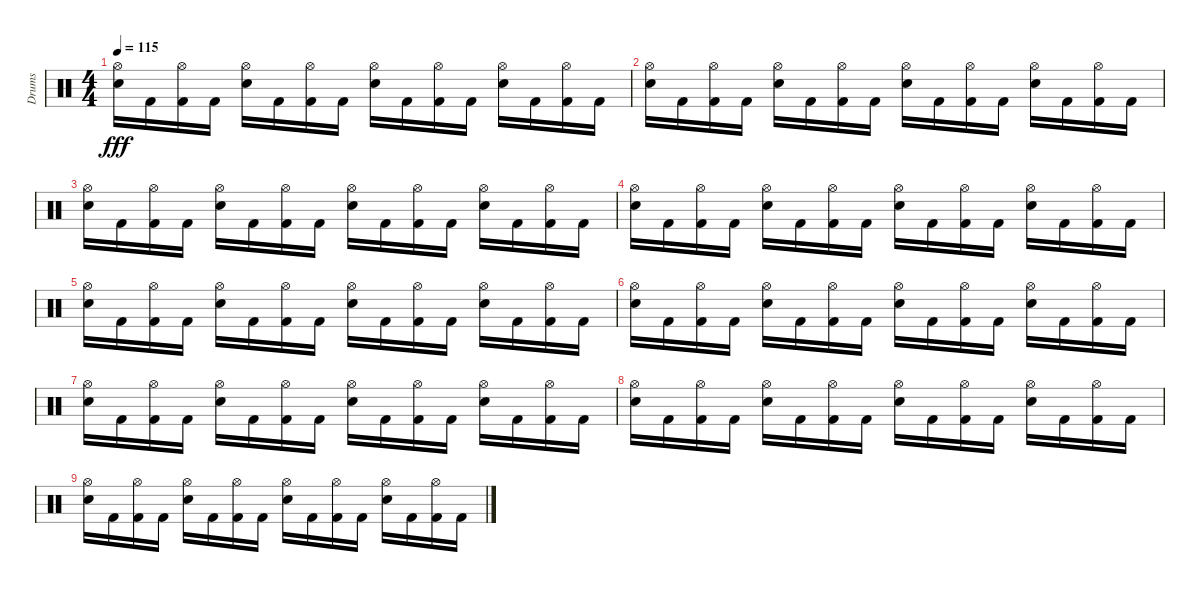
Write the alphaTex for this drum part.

\track ("Drums" "Drums") {instrument percussion}
\staff {score}
\articulation defaults
\ts (4 4)
\tempo 115
\clef neutral
\ks c
("Hi-Hat (open)" "Electric Snare (hit)").16{dy fff volume 8} "Kick (hit) 2".16 ("Hi-Hat (open)" "Kick (hit) 2").16{volume 8} "Kick (hit) 2".16 ("Hi-Hat (open)" "Electric Snare (hit)").16{volume 8} "Kick (hit) 2".16 ("Hi-Hat (open)" "Kick (hit) 2").16{volume 7} "Kick (hit) 2".16 ("Hi-Hat (open)" "Electric Snare (hit)").16 "Kick (hit) 2".16{volume 7} ("Hi-Hat (open)" "Kick (hit) 2").16 "Kick (hit) 2".16{volume 7} ("Hi-Hat (open)" "Electric Snare (hit)").16 "Kick (hit) 2".16{volume 7} ("Hi-Hat (open)" "Kick (hit) 2").16 "Kick (hit) 2".16{volume 7} |
("Hi-Hat (open)" "Electric Snare (hit)").16 "Kick (hit) 2".16{volume 7} ("Hi-Hat (open)" "Kick (hit) 2").16 "Kick (hit) 2".16 ("Hi-Hat (open)" "Electric Snare (hit)").16{volume 7} "Kick (hit) 2".16 ("Hi-Hat (open)" "Kick (hit) 2").16{volume 6} "Kick (hit) 2".16 ("Hi-Hat (open)" "Electric Snare (hit)").16{volume 6} "Kick (hit) 2".16 ("Hi-Hat (open)" "Kick (hit) 2").16{volume 6} "Kick (hit) 2".16 ("Hi-Hat (open)" "Electric Snare (hit)").16{volume 6} "Kick (hit) 2".16 ("Hi-Hat (open)" "Kick (hit) 2").16 "Kick (hit) 2".16{volume 6} |
("Hi-Hat (open)" "Electric Snare (hit)").16 "Kick (hit) 2".16{volume 6} ("Hi-Hat (open)" "Kick (hit) 2").16 "Kick (hit) 2".16{volume 6} ("Hi-Hat (open)" "Electric Snare (hit)").16 "Kick (hit) 2".16{volume 6} ("Hi-Hat (open)" "Kick (hit) 2").16 "Kick (hit) 2".16{volume 6} ("Hi-Hat (open)" "Electric Snare (hit)").16 "Kick (hit) 2".16 ("Hi-Hat (open)" "Kick (hit) 2").16{volume 5} "Kick (hit) 2".16 ("Hi-Hat (open)" "Electric Snare (hit)").16{volume 5} "Kick (hit) 2".16 ("Hi-Hat (open)" "Kick (hit) 2").16{volume 5} "Kick (hit) 2".16 |
("Hi-Hat (open)" "Electric Snare (hit)").16{volume 5} "Kick (hit) 2".16 ("Hi-Hat (open)" "Kick (hit) 2").16{volume 5} "Kick (hit) 2".16 ("Hi-Hat (open)" "Electric Snare (hit)").16 "Kick (hit) 2".16{volume 5} ("Hi-Hat (open)" "Kick (hit) 2").16 "Kick (hit) 2".16{volume 5} ("Hi-Hat (open)" "Electric Snare (hit)").16 "Kick (hit) 2".16{volume 4} ("Hi-Hat (open)" "Kick (hit) 2").16 "Kick (hit) 2".16{volume 4} ("Hi-Hat (open)" "Electric Snare (hit)").16 "Kick (hit) 2".16{volume 4} ("Hi-Hat (open)" "Kick (hit) 2").16 "Kick (hit) 2".16 |
("Hi-Hat (open)" "Electric Snare (hit)").16{volume 4} "Kick (hit) 2".16 ("Hi-Hat (open)" "Kick (hit) 2").16{volume 4} "Kick (hit) 2".16 ("Hi-Hat (open)" "Electric Snare (hit)").16{volume 4} "Kick (hit) 2".16 ("Hi-Hat (open)" "Kick (hit) 2").16{volume 4} "Kick (hit) 2".16 ("Hi-Hat (open)" "Electric Snare (hit)").16 "Kick (hit) 2".16{volume 4} ("Hi-Hat (open)" "Kick (hit) 2").16 "Kick (hit) 2".16{volume 4} ("Hi-Hat (open)" "Electric Snare (hit)").16 "Kick (hit) 2".16{volume 3} ("Hi-Hat (open)" "Kick (hit) 2").16 "Kick (hit) 2".16{volume 3} |
("Hi-Hat (open)" "Electric Snare (hit)").16 "Kick (hit) 2".16{volume 3} ("Hi-Hat (open)" "Kick (hit) 2").16 "Kick (hit) 2".16 ("Hi-Hat (open)" "Electric Snare (hit)").16{volume 3} "Kick (hit) 2".16 ("Hi-Hat (open)" "Kick (hit) 2").16{volume 3} "Kick (hit) 2".16 ("Hi-Hat (open)" "Electric Snare (hit)").16{volume 3} "Kick (hit) 2".16 ("Hi-Hat (open)" "Kick (hit) 2").16{volume 3} "Kick (hit) 2".16 ("Hi-Hat (open)" "Electric Snare (hit)").16{volume 2} "Kick (hit) 2".16 ("Hi-Hat (open)" "Kick (hit) 2").16 "Kick (hit) 2".16{volume 2} |
("Hi-Hat (open)" "Electric Snare (hit)").16 "Kick (hit) 2".16{volume 2} ("Hi-Hat (open)" "Kick (hit) 2").16 "Kick (hit) 2".16{volume 2} ("Hi-Hat (open)" "Electric Snare (hit)").16 "Kick (hit) 2".16{volume 2} ("Hi-Hat (open)" "Kick (hit) 2").16 "Kick (hit) 2".16{volume 2} ("Hi-Hat (open)" "Electric Snare (hit)").16 "Kick (hit) 2".16 ("Hi-Hat (open)" "Kick (hit) 2").16{volume 2} "Kick (hit) 2".16 ("Hi-Hat (open)" "Electric Snare (hit)").16{volume 2} "Kick (hit) 2".16 ("Hi-Hat (open)" "Kick (hit) 2").16{volume 2} "Kick (hit) 2".16 |
("Hi-Hat (open)" "Electric Snare (hit)").16{volume 1} "Kick (hit) 2".16 ("Hi-Hat (open)" "Kick (hit) 2").16{volume 1} "Kick (hit) 2".16 ("Hi-Hat (open)" "Electric Snare (hit)").16 "Kick (hit) 2".16{volume 1} ("Hi-Hat (open)" "Kick (hit) 2").16 "Kick (hit) 2".16{volume 1} ("Hi-Hat (open)" "Electric Snare (hit)").16 "Kick (hit) 2".16{volume 1} ("Hi-Hat (open)" "Kick (hit) 2").16 "Kick (hit) 2".16{volume 1} ("Hi-Hat (open)" "Electric Snare (hit)").16 "Kick (hit) 2".16{volume 1} ("Hi-Hat (open)" "Kick (hit) 2").16 "Kick (hit) 2".16 |
("Hi-Hat (open)" "Electric Snare (hit)").16{volume 0} "Kick (hit) 2".16 ("Hi-Hat (open)" "Kick (hit) 2").16{volume 0} "Kick (hit) 2".16 ("Hi-Hat (open)" "Electric Snare (hit)").16{volume 0} "Kick (hit) 2".16 ("Hi-Hat (open)" "Kick (hit) 2").16{volume 0} "Kick (hit) 2".16 ("Hi-Hat (open)" "Electric Snare (hit)").16{volume 0} "Kick (hit) 2".16 ("Hi-Hat (open)" "Kick (hit) 2").16 "Kick (hit) 2".16 ("Hi-Hat (open)" "Electric Snare (hit)").16 "Kick (hit) 2".16 ("Hi-Hat (open)" "Kick (hit) 2").16 "Kick (hit) 2".16
